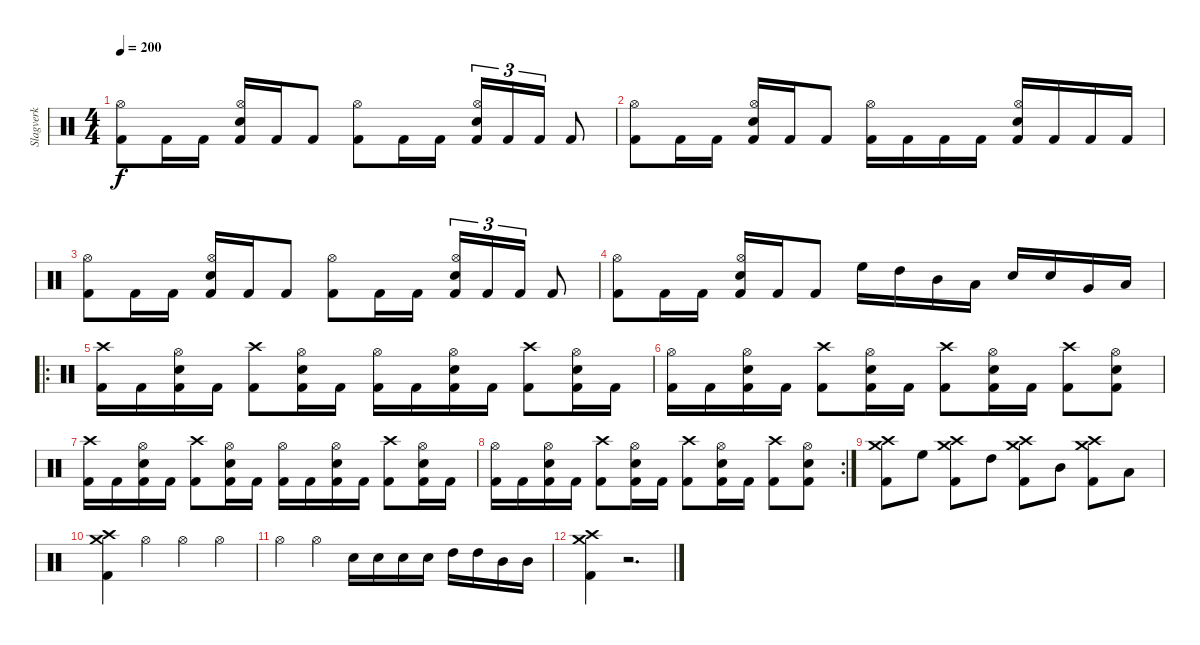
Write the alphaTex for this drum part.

\track ("Slagverk" "Slagverk") {instrument percussion}
\staff {score}
\articulation defaults
\ts (4 4)
\tempo 200
\clef neutral
\ks c
("Kick (hit) 2" "Hi-Hat (open)").8{dy f} "Kick (hit) 2".16 "Kick (hit) 2".16 ("Kick (hit) 2" "Electric Snare (hit)" "Hi-Hat (open)").16 "Kick (hit) 2".16 "Kick (hit) 2".8 ("Kick (hit) 2" "Hi-Hat (open)").8 "Kick (hit) 2".16 "Kick (hit) 2".16 ("Kick (hit) 2" "Electric Snare (hit)" "Hi-Hat (open)").16{tu (3 2)} "Kick (hit) 2".16{tu (3 2)} "Kick (hit) 2".16{tu (3 2)} "Kick (hit) 2".8 |
("Kick (hit) 2" "Hi-Hat (open)").8 "Kick (hit) 2".16 "Kick (hit) 2".16 ("Kick (hit) 2" "Electric Snare (hit)" "Hi-Hat (open)").16 "Kick (hit) 2".16 "Kick (hit) 2".8 ("Kick (hit) 2" "Hi-Hat (open)").16 "Kick (hit) 2".16 "Kick (hit) 2".16 "Kick (hit) 2".16 ("Kick (hit) 2" "Electric Snare (hit)" "Hi-Hat (open)").16 "Kick (hit) 2".16 "Kick (hit) 2".16 "Kick (hit) 2".16 |
("Kick (hit) 2" "Hi-Hat (open)").8 "Kick (hit) 2".16 "Kick (hit) 2".16 ("Kick (hit) 2" "Electric Snare (hit)" "Hi-Hat (open)").16 "Kick (hit) 2".16 "Kick (hit) 2".8 ("Kick (hit) 2" "Hi-Hat (open)").8 "Kick (hit) 2".16 "Kick (hit) 2".16 ("Kick (hit) 2" "Electric Snare (hit)" "Hi-Hat (open)").16{tu (3 2)} "Kick (hit) 2".16{tu (3 2)} "Kick (hit) 2".16{tu (3 2)} "Kick (hit) 2".8 |
("Kick (hit) 2" "Hi-Hat (open)").8 "Kick (hit) 2".16 "Kick (hit) 2".16 ("Kick (hit) 2" "Electric Snare (hit)" "Hi-Hat (open)").16 "Kick (hit) 2".16 "Kick (hit) 2".8 "High Floor Tom (hit)".16 "High Tom (hit)".16 "Mid Tom (hit)".16 "Low Tom (hit)".16 "Electric Snare (hit)".16 "Electric Snare (hit)".16 "Very Low Tom (hit)".16 "Low Floor Tom (hit)".16 |
\ro
("Kick (hit) 2" "Crash high (hit)").16 "Kick (hit) 2".16 ("Kick (hit) 2" "Electric Snare (hit)" "Hi-Hat (open)").16 "Kick (hit) 2".16 ("Kick (hit) 2" "Crash high (hit)").8 ("Kick (hit) 2" "Electric Snare (hit)" "Hi-Hat (open)").16 "Kick (hit) 2".16 ("Kick (hit) 2" "Hi-Hat (open)").16 "Kick (hit) 2".16 ("Kick (hit) 2" "Electric Snare (hit)" "Hi-Hat (open)").16 "Kick (hit) 2".16 ("Kick (hit) 2" "Crash high (hit)").8 ("Kick (hit) 2" "Electric Snare (hit)" "Hi-Hat (open)").16 "Kick (hit) 2".16 |
("Kick (hit) 2" "Hi-Hat (open)").16 "Kick (hit) 2".16 ("Kick (hit) 2" "Electric Snare (hit)" "Hi-Hat (open)").16 "Kick (hit) 2".16 ("Kick (hit) 2" "Crash high (hit)").8 ("Kick (hit) 2" "Electric Snare (hit)" "Hi-Hat (open)").16 "Kick (hit) 2".16 ("Kick (hit) 2" "Crash high (hit)").8 ("Kick (hit) 2" "Electric Snare (hit)" "Hi-Hat (open)").16 "Kick (hit) 2".16 ("Kick (hit) 2" "Crash high (hit)").8 ("Kick (hit) 2" "Electric Snare (hit)" "Hi-Hat (open)").8 |
("Kick (hit) 2" "Crash high (hit)").16 "Kick (hit) 2".16 ("Kick (hit) 2" "Electric Snare (hit)" "Hi-Hat (open)").16 "Kick (hit) 2".16 ("Kick (hit) 2" "Crash high (hit)").8 ("Kick (hit) 2" "Electric Snare (hit)" "Hi-Hat (open)").16 "Kick (hit) 2".16 ("Kick (hit) 2" "Hi-Hat (open)").16 "Kick (hit) 2".16 ("Kick (hit) 2" "Electric Snare (hit)" "Hi-Hat (open)").16 "Kick (hit) 2".16 ("Kick (hit) 2" "Crash high (hit)").8 ("Kick (hit) 2" "Electric Snare (hit)" "Hi-Hat (open)").16 "Kick (hit) 2".16 |
\rc 2
("Kick (hit) 2" "Hi-Hat (open)").16 "Kick (hit) 2".16 ("Kick (hit) 2" "Electric Snare (hit)" "Hi-Hat (open)").16 "Kick (hit) 2".16 ("Kick (hit) 2" "Crash high (hit)").8 ("Kick (hit) 2" "Electric Snare (hit)" "Hi-Hat (open)").16 "Kick (hit) 2".16 ("Kick (hit) 2" "Crash high (hit)").8 ("Kick (hit) 2" "Electric Snare (hit)" "Hi-Hat (open)").16 "Kick (hit) 2".16 ("Kick (hit) 2" "Crash high (hit)").8 ("Kick (hit) 2" "Electric Snare (hit)" "Hi-Hat (open)").8 |
("Kick (hit) 2" "Crash high (hit)" "Crash medium (hit)").8 "High Floor Tom (hit)".8 ("Kick (hit) 2" "Crash medium (hit)" "Crash high (hit)").8 "High Tom (hit)".8 ("Kick (hit) 2" "Crash high (hit)" "Crash medium (hit)").8 "Mid Tom (hit)".8 ("Kick (hit) 2" "Crash medium (hit)" "Crash high (hit)").8 "Low Tom (hit)".8 |
("Kick (hit) 2" "Crash high (hit)" "Crash medium (hit)").4 "Hi-Hat (open)".4 "Hi-Hat (open)".4 "Hi-Hat (open)".4 |
"Hi-Hat (open)".4 "Hi-Hat (open)".4 "Electric Snare (hit)".16 "Electric Snare (hit)".16 "Electric Snare (hit)".16 "Electric Snare (hit)".16 "High Tom (hit)".16 "High Tom (hit)".16 "Mid Tom (hit)".16 "Mid Tom (hit)".16 |
("Kick (hit) 2" "Crash high (hit)" "Crash medium (hit)").4 r.2{d}
